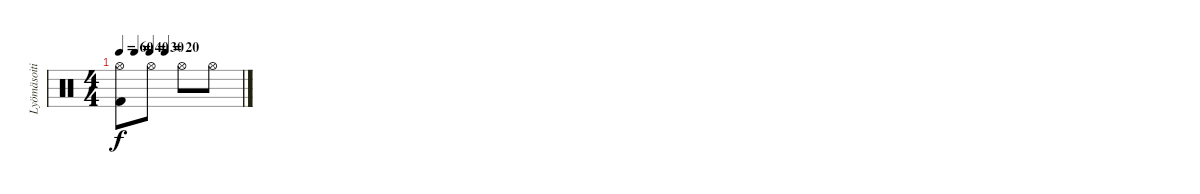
\track ("Lyömäsoitin" "Lyömäsoiti") {instrument percussion}
\staff {score}
\articulation defaults
\ts (4 4)
\tempo 60
\tempo (40 0.125)
\tempo (30 0.25)
\tempo (20 0.375)
\clef neutral
\ks c
("Hi-Hat (open)" "Kick (hit) 2").8{dy f} "Hi-Hat (open)".8 "Hi-Hat (open)".8 "Hi-Hat (open)".8
